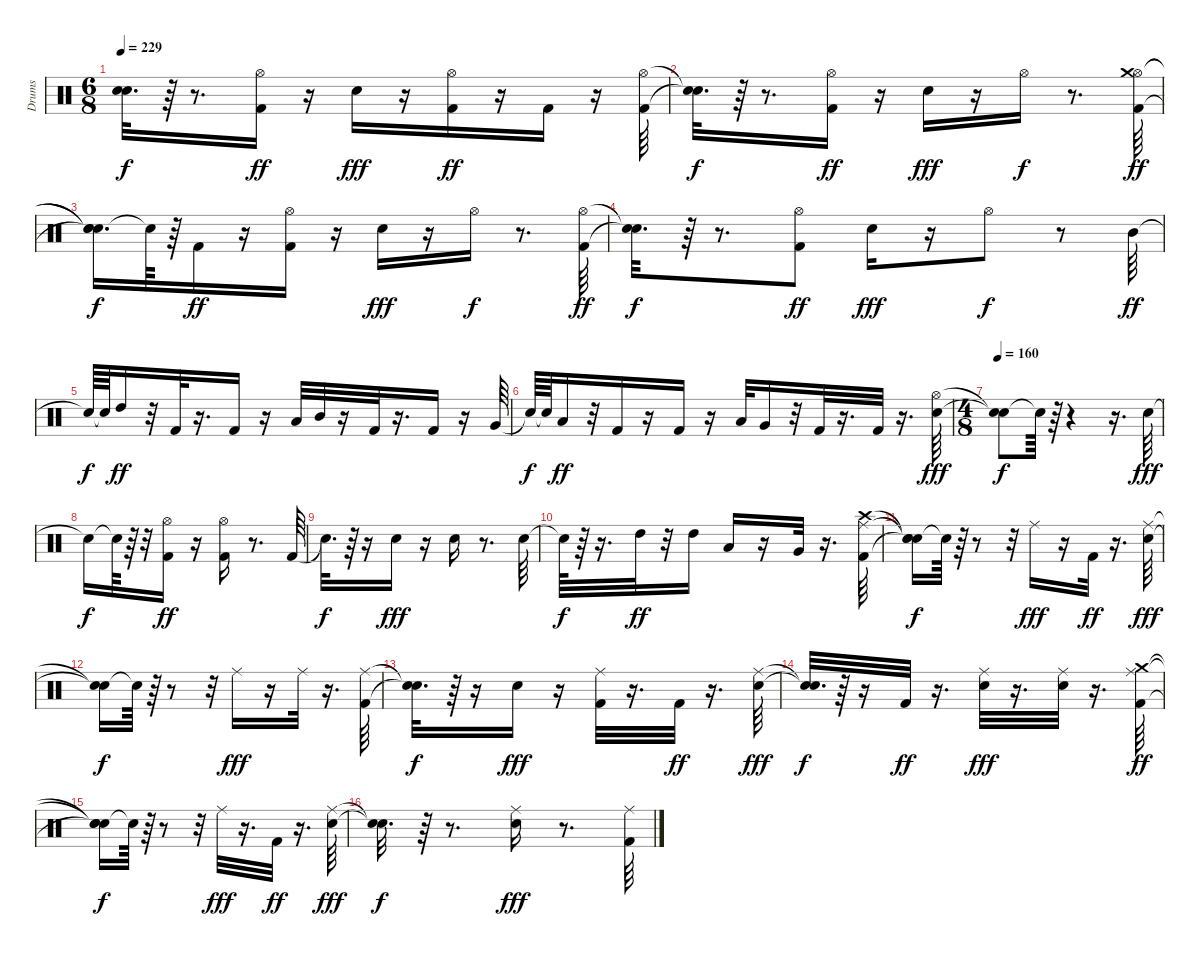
\track ("Drums" "Drums") {instrument percussion}
\staff {score}
\articulation defaults
\ts (6 8)
\tempo 229
\clef neutral
\ks c
("Snare (hit)"{t} "Snare (hit)"{t}).32{d dy f} r.64 r.8{d} ("Kick (hit) 2" "Hi-Hat (open)").16{dy ff} r.16 "Snare (hit) 2".16{dy fff} r.16 ("Kick (hit) 2" "Hi-Hat (open)").16{dy ff} r.16 "Kick (hit) 2".16 r.16 ("Kick (hit) 2" "Hi-Hat (open)").64 |
("Snare (hit)"{t} "Snare (hit)"{t}).32{d dy f} r.64 r.8{d} ("Kick (hit) 2" "Hi-Hat (open)").16{dy ff} r.16 "Snare (hit) 2".16{dy fff} r.16 "Hi-Hat (open)".16{dy f} r.8{d} ("Kick (hit) 2" "Hi-Hat (open)" "Crash medium (hit)").64{dy ff} |
("Snare (hit)"{t} "Snare (hit)"{t} "Snare (hit)"{t}).16{d dy f} "Snare (hit)"{t}.64 r.64 "Kick (hit) 2".16{dy ff} r.16 ("Kick (hit) 2" "Hi-Hat (open)").16 r.16 "Snare (hit) 2".16{dy fff} r.16 "Hi-Hat (open)".16{dy f} r.8{d} ("Kick (hit) 2" "Hi-Hat (open)").64{dy ff} |
("Snare (hit)"{t} "Snare (hit)"{t}).32{d dy f} r.64 r.8{d} ("Kick (hit) 2" "Hi-Hat (open)").8{dy ff} "Snare (hit) 2".16{dy fff} r.16 "Hi-Hat (open)".8{dy f} r.8 "Mid Tom (hit)".64{dy ff} |
"Snare (hit)"{t}.64{dy f} "Snare (hit)"{t}.64 "High Tom (hit)".16{dy ff} r.32 "Kick (hit) 2".32 r.16{d} "Kick (hit) 2".16 r.16 "Low Tom (hit)".32 "Mid Tom (hit)".32 r.16 "Kick (hit) 2".32 r.16{d} "Kick (hit) 2".16 r.16 "Very Low Tom (hit)".64 |
"Snare (hit)"{t}.64{dy f} "Snare (hit)"{t}.64 "Low Tom (hit)".16{dy ff} r.32 "Kick (hit) 2".16 r.16 "Kick (hit) 2".16 r.16 "Low Floor Tom (hit)".32 "Very Low Tom (hit)".16 r.32 "Kick (hit) 2".32 r.16{d} "Kick (hit) 2".32 r.16{d} ("Snare (hit) 2" "Hi-Hat (open)").64{dy fff} |
\ts (4 8)
\tempo 160
("Snare (hit)"{t} "Snare (hit)"{t}).8{dy f} "Snare (hit)"{t}.64 r.64 r.4 r.16{d} "Snare (hit) 2".64{dy fff} |
"Snare (hit)"{t}.16{dy f} "Snare (hit)"{t}.64 r.64 r.32 ("Kick (hit) 2" "Hi-Hat (open)").16{dy ff} r.16 ("Kick (hit) 2" "Hi-Hat (open)").16 r.8{d} "Kick (hit) 2".64 |
"Snare (hit)"{t}.32{d dy f} r.64 r.16 "Snare (hit) 2".16{dy fff} r.16 "Snare (hit) 2".16 r.8{d} "Snare (hit) 2".64 |
"Snare (hit)"{t}.64{dy f} r.64 r.16{d} "High Tom (hit)".32{dy ff} r.32 "High Tom (hit)".16 "Low Tom (hit)".16 r.16 "Very Low Tom (hit)".32 r.16{d} ("Kick (hit) 2" "Ride (middle)" "Crash high (hit)").64 |
("Snare (hit)"{t} "Snare (hit)"{t} "Snare (hit)"{t}).16{dy f} "Snare (hit)"{t}.64 r.64 r.8 r.32 "Ride (middle)".16{dy fff} r.16 "Kick (hit) 2".32{dy ff} r.16{d} ("Snare (hit) 2" "Ride (middle)").64{dy fff} |
("Snare (hit)"{t} "Snare (hit)"{t}).16{dy f} "Snare (hit)"{t}.64 r.64 r.8 r.32 "Ride (middle)".16{dy fff} r.16 "Ride (middle)".32 r.16{d} ("Kick (hit) 2" "Ride (middle)").64 |
("Snare (hit)"{t} "Snare (hit)"{t}).32{d dy f} r.64 r.16 "Snare (hit) 2".16{dy fff} r.16 ("Kick (hit) 2" "Ride (middle)").32 r.16{d} "Kick (hit) 2".32{dy ff} r.16{d} ("Snare (hit) 2" "Ride (middle)").64{dy fff} |
("Snare (hit)"{t} "Snare (hit)"{t}).32{d dy f} r.64 r.16 "Kick (hit) 2".32{dy ff} r.16{d} ("Snare (hit) 2" "Ride (middle)").32{dy fff} r.16{d} ("Snare (hit) 2" "Ride (middle)").32 r.16{d} ("Kick (hit) 2" "Ride (middle)" "Crash medium (hit)").64{dy ff} |
("Snare (hit)"{t} "Snare (hit)"{t} "Snare (hit)"{t}).16{dy f} "Snare (hit)"{t}.64 r.64 r.8 r.32 "Ride (middle)".32{dy fff} r.16{d} "Kick (hit) 2".32{dy ff} r.16{d} ("Snare (hit) 2" "Ride (middle)").64{dy fff} |
("Snare (hit)"{t} "Snare (hit)"{t}).32{d dy f} r.64 r.8{d} ("Snare (hit) 2" "Ride (middle)").16{dy fff} r.8{d} ("Kick (hit) 2" "Ride (middle)").64
